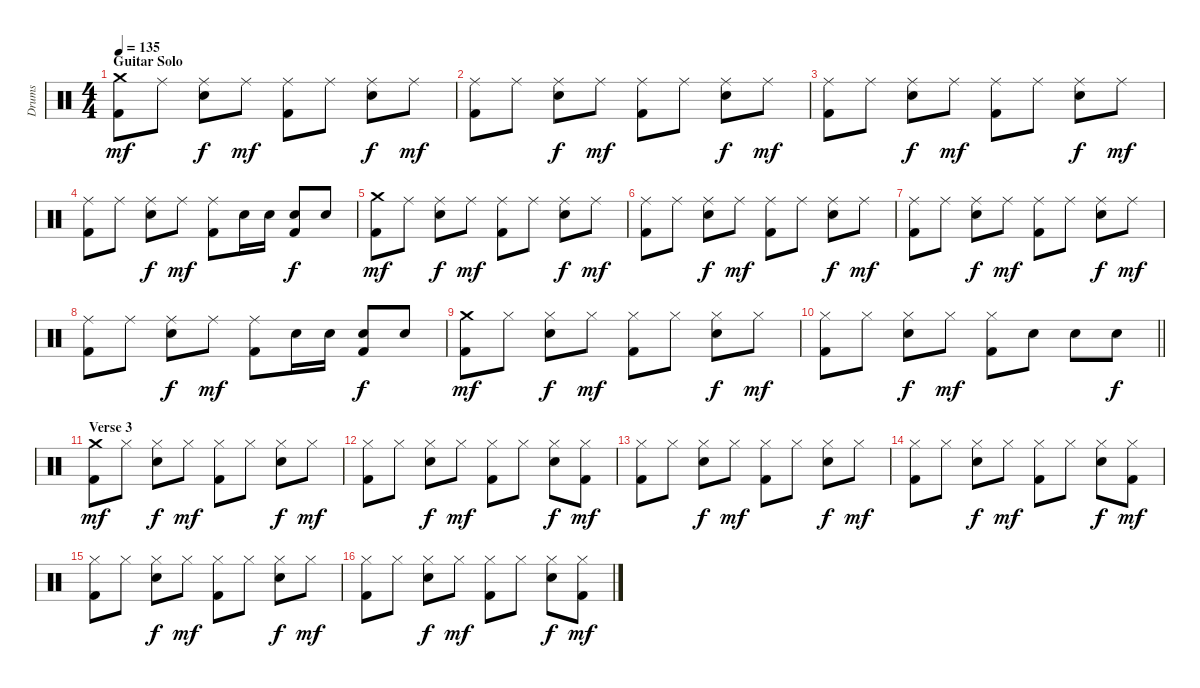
\track ("Drums" "Drums") {instrument percussion}
\staff {score}
\articulation defaults
\ts (4 4)
\section ("" "Guitar Solo")
\tempo 135
\clef neutral
\ks c
("Crash medium (hit)" "Kick (hit) 2").8{dy mf} "Ride (middle)".8 ("Ride (middle)" "Snare (hit) 2").8{dy f} "Ride (middle)".8{dy mf} ("Ride (middle)" "Kick (hit) 2").8 "Ride (middle)".8 ("Ride (middle)" "Snare (hit) 2").8{dy f} "Ride (middle)".8{dy mf} |
("Ride (middle)" "Kick (hit) 2").8 "Ride (middle)".8 ("Ride (middle)" "Snare (hit) 2").8{dy f} "Ride (middle)".8{dy mf} ("Ride (middle)" "Kick (hit) 2").8 "Ride (middle)".8 ("Ride (middle)" "Snare (hit) 2").8{dy f} "Ride (middle)".8{dy mf} |
("Ride (middle)" "Kick (hit) 2").8 "Ride (middle)".8 ("Ride (middle)" "Snare (hit) 2").8{dy f} "Ride (middle)".8{dy mf} ("Ride (middle)" "Kick (hit) 2").8 "Ride (middle)".8 ("Ride (middle)" "Snare (hit) 2").8{dy f} "Ride (middle)".8{dy mf} |
("Ride (middle)" "Kick (hit) 2").8 "Ride (middle)".8 ("Ride (middle)" "Snare (hit) 2").8{dy f} "Ride (middle)".8{dy mf} ("Ride (middle)" "Kick (hit) 2").8 "Snare (hit) 2".16 "Snare (hit) 2".16 ("Snare (hit) 2" "Kick (hit) 2").8{dy f} "Snare (hit) 2".8 |
("Crash medium (hit)" "Kick (hit) 2").8{dy mf} "Ride (middle)".8 ("Ride (middle)" "Snare (hit) 2").8{dy f} "Ride (middle)".8{dy mf} ("Ride (middle)" "Kick (hit) 2").8 "Ride (middle)".8 ("Ride (middle)" "Snare (hit) 2").8{dy f} "Ride (middle)".8{dy mf} |
("Ride (middle)" "Kick (hit) 2").8 "Ride (middle)".8 ("Ride (middle)" "Snare (hit) 2").8{dy f} "Ride (middle)".8{dy mf} ("Ride (middle)" "Kick (hit) 2").8 "Ride (middle)".8 ("Ride (middle)" "Snare (hit) 2").8{dy f} "Ride (middle)".8{dy mf} |
("Ride (middle)" "Kick (hit) 2").8 "Ride (middle)".8 ("Ride (middle)" "Snare (hit) 2").8{dy f} "Ride (middle)".8{dy mf} ("Ride (middle)" "Kick (hit) 2").8 "Ride (middle)".8 ("Ride (middle)" "Snare (hit) 2").8{dy f} "Ride (middle)".8{dy mf} |
("Ride (middle)" "Kick (hit) 2").8 "Ride (middle)".8 ("Ride (middle)" "Snare (hit) 2").8{dy f} "Ride (middle)".8{dy mf} ("Ride (middle)" "Kick (hit) 2").8 "Snare (hit) 2".16 "Snare (hit) 2".16 ("Snare (hit) 2" "Kick (hit) 2").8{dy f} "Snare (hit) 2".8 |
("Crash medium (hit)" "Kick (hit) 2").8{dy mf} "Hi-Hat (closed)".8 ("Hi-Hat (closed)" "Snare (hit) 2").8{dy f} "Hi-Hat (closed)".8{dy mf} ("Hi-Hat (closed)" "Kick (hit) 2").8 "Hi-Hat (closed)".8 ("Hi-Hat (closed)" "Snare (hit) 2").8{dy f} "Hi-Hat (closed)".8{dy mf} |
\barLineRight lightlight
("Hi-Hat (closed)" "Kick (hit) 2").8 "Hi-Hat (closed)".8 ("Hi-Hat (closed)" "Snare (hit) 2").8{dy f} "Hi-Hat (closed)".8{dy mf} ("Hi-Hat (closed)" "Kick (hit) 2").8 "Snare (hit) 2".8 "Snare (hit) 2".8 "Snare (hit) 2".8{dy f} |
\section ("" "Verse 3")
("Crash medium (hit)" "Kick (hit) 2").8{dy mf} "Hi-Hat (closed)".8 ("Hi-Hat (closed)" "Snare (hit) 2").8{dy f} "Hi-Hat (closed)".8{dy mf} ("Hi-Hat (closed)" "Kick (hit) 2").8 "Hi-Hat (closed)".8 ("Hi-Hat (closed)" "Snare (hit) 2").8{dy f} "Hi-Hat (closed)".8{dy mf} |
("Hi-Hat (closed)" "Kick (hit) 2").8 "Hi-Hat (closed)".8 ("Hi-Hat (closed)" "Snare (hit) 2").8{dy f} "Hi-Hat (closed)".8{dy mf} ("Hi-Hat (closed)" "Kick (hit) 2").8 "Hi-Hat (closed)".8 ("Hi-Hat (closed)" "Snare (hit) 2").8{dy f} ("Hi-Hat (closed)" "Kick (hit) 2").8{dy mf} |
("Hi-Hat (closed)" "Kick (hit) 2").8 "Hi-Hat (closed)".8 ("Hi-Hat (closed)" "Snare (hit) 2").8{dy f} "Hi-Hat (closed)".8{dy mf} ("Hi-Hat (closed)" "Kick (hit) 2").8 "Hi-Hat (closed)".8 ("Hi-Hat (closed)" "Snare (hit) 2").8{dy f} "Hi-Hat (closed)".8{dy mf} |
("Hi-Hat (closed)" "Kick (hit) 2").8 "Hi-Hat (closed)".8 ("Hi-Hat (closed)" "Snare (hit) 2").8{dy f} "Hi-Hat (closed)".8{dy mf} ("Hi-Hat (closed)" "Kick (hit) 2").8 "Hi-Hat (closed)".8 ("Hi-Hat (closed)" "Snare (hit) 2").8{dy f} ("Hi-Hat (closed)" "Kick (hit) 2").8{dy mf} |
("Hi-Hat (closed)" "Kick (hit) 2").8 "Hi-Hat (closed)".8 ("Hi-Hat (closed)" "Snare (hit) 2").8{dy f} "Hi-Hat (closed)".8{dy mf} ("Hi-Hat (closed)" "Kick (hit) 2").8 "Hi-Hat (closed)".8 ("Hi-Hat (closed)" "Snare (hit) 2").8{dy f} "Hi-Hat (closed)".8{dy mf} |
("Hi-Hat (closed)" "Kick (hit) 2").8 "Hi-Hat (closed)".8 ("Hi-Hat (closed)" "Snare (hit) 2").8{dy f} "Hi-Hat (closed)".8{dy mf} ("Hi-Hat (closed)" "Kick (hit) 2").8 "Hi-Hat (closed)".8 ("Hi-Hat (closed)" "Snare (hit) 2").8{dy f} ("Hi-Hat (closed)" "Kick (hit) 2").8{dy mf}
